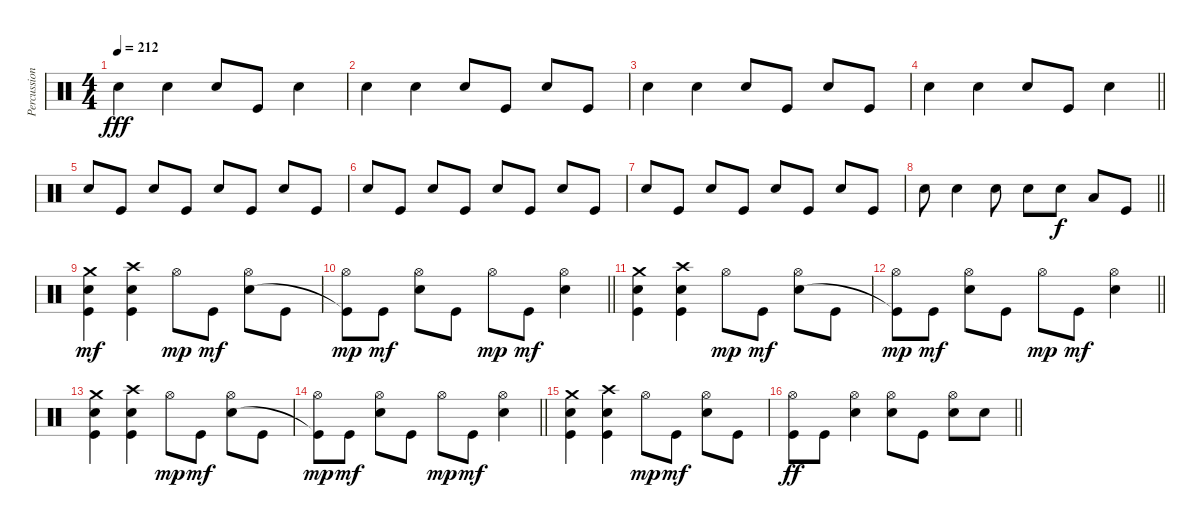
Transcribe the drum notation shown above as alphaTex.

\track ("Percussion" "Percussion") {instrument percussion}
\staff {score}
\articulation defaults
\ts (4 4)
\tempo 212
\clef neutral
\ks c "Snare (hit) 2".4{dy fff} "Snare (hit) 2".4 "Snare (hit) 2".8 "Kick (hit)".8 "Snare (hit) 2".4
|
"Snare (hit) 2".4 "Snare (hit) 2".4 "Snare (hit) 2".8 "Kick (hit)".8 "Snare (hit) 2".8 "Kick (hit)".8 |
"Snare (hit) 2".4 "Snare (hit) 2".4 "Snare (hit) 2".8 "Kick (hit)".8 "Snare (hit) 2".8 "Kick (hit)".8 |
\barLineRight lightlight "Snare (hit) 2".4 "Snare (hit) 2".4 "Snare (hit) 2".8 "Kick (hit)".8 "Snare (hit) 2".4
|
"Snare (hit) 2".8 "Kick (hit)".8 "Snare (hit) 2".8 "Kick (hit)".8 "Snare (hit) 2".8 "Kick (hit)".8 "Snare (hit) 2".8 "Kick (hit)".8 |
"Snare (hit) 2".8 "Kick (hit)".8 "Snare (hit) 2".8 "Kick (hit)".8 "Snare (hit) 2".8 "Kick (hit)".8 "Snare (hit) 2".8 "Kick (hit)".8 |
"Snare (hit) 2".8 "Kick (hit)".8 "Snare (hit) 2".8 "Kick (hit)".8 "Snare (hit) 2".8 "Kick (hit)".8 "Snare (hit) 2".8 "Kick (hit)".8 |
\barLineRight lightlight "Snare (hit) 2".8 "Snare (hit) 2".4 "Snare (hit) 2".8 "Snare (hit) 2".8 "Snare (hit) 2".8{dy f} "Low Floor Tom (hit)".8 "Kick (hit)".8
|
("Crash medium (hit)" "Snare (hit) 2" "Kick (hit)").4{dy mf} ("Crash high (hit)" "Snare (hit) 2" "Kick (hit)").4 "Hi-Hat (open)".8{dy mp} "Kick (hit)".8{dy mf} ("Hi-Hat (open)" "Snare (hit) 2").8 "Kick (hit)".8 |
\barLineRight lightlight
("Hi-Hat (open)" "Kick (hit)"{t}).8{dy mp} "Kick (hit)".8{dy mf} ("Hi-Hat (open)" "Snare (hit) 2").8 "Kick (hit)".8 "Hi-Hat (open)".8{dy mp} "Kick (hit)".8{dy mf} ("Hi-Hat (open)" "Snare (hit) 2").4 |
("Crash medium (hit)" "Snare (hit) 2" "Kick (hit)").4 ("Crash high (hit)" "Snare (hit) 2" "Kick (hit)").4 "Hi-Hat (open)".8{dy mp} "Kick (hit)".8{dy mf} ("Hi-Hat (open)" "Snare (hit) 2").8 "Kick (hit)".8 |
\barLineRight lightlight
("Hi-Hat (open)" "Kick (hit)"{t}).8{dy mp} "Kick (hit)".8{dy mf} ("Hi-Hat (open)" "Snare (hit) 2").8 "Kick (hit)".8 "Hi-Hat (open)".8{dy mp} "Kick (hit)".8{dy mf} ("Hi-Hat (open)" "Snare (hit) 2").4 |
("Crash medium (hit)" "Snare (hit) 2" "Kick (hit)").4 ("Crash high (hit)" "Snare (hit) 2" "Kick (hit)").4 "Hi-Hat (open)".8{dy mp} "Kick (hit)".8{dy mf} ("Hi-Hat (open)" "Snare (hit) 2").8 "Kick (hit)".8 |
\barLineRight lightlight
("Hi-Hat (open)" "Kick (hit)"{t}).8{dy mp} "Kick (hit)".8{dy mf} ("Hi-Hat (open)" "Snare (hit) 2").8 "Kick (hit)".8 "Hi-Hat (open)".8{dy mp} "Kick (hit)".8{dy mf} ("Hi-Hat (open)" "Snare (hit) 2").4 |
("Crash medium (hit)" "Snare (hit) 2" "Kick (hit)").4 ("Crash high (hit)" "Snare (hit) 2" "Kick (hit)").4 "Hi-Hat (open)".8{dy mp} "Kick (hit)".8{dy mf} ("Hi-Hat (open)" "Snare (hit) 2").8 "Kick (hit)".8 |
\barLineRight lightlight
("Hi-Hat (open)" "Kick (hit)").8{dy ff} "Kick (hit)".8 ("Hi-Hat (open)" "Snare (hit) 2").4 ("Hi-Hat (open)" "Snare (hit) 2").8 "Kick (hit)".8 ("Hi-Hat (open)" "Snare (hit) 2").8 "Snare (hit) 2".8
